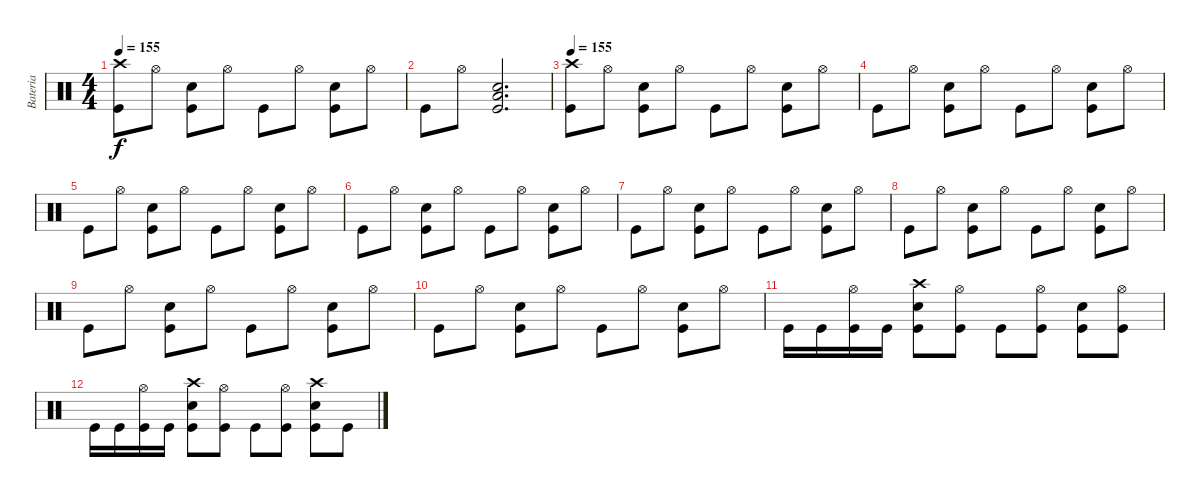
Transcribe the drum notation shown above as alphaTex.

\track ("Bateria" "Bateria") {instrument percussion}
\staff {score}
\articulation defaults
\ts (4 4)
\tempo 155
\clef neutral
\ks c
("Crash high (hit)" "Kick (hit)").8{dy f} "Hi-Hat (open)".8 ("Snare (hit) 2" "Kick (hit)").8 "Hi-Hat (open)".8 "Kick (hit)".8 "Hi-Hat (open)".8 ("Snare (hit) 2" "Kick (hit)").8 "Hi-Hat (open)".8 |
"Kick (hit)".8 "Hi-Hat (open)".8 ("Low Tom (hit)" "Snare (hit) 2" "Kick (hit)").2{d} |
\tempo 155
("Crash high (hit)" "Kick (hit)").8 "Hi-Hat (open)".8 ("Snare (hit) 2" "Kick (hit)").8 "Hi-Hat (open)".8 "Kick (hit)".8 "Hi-Hat (open)".8 ("Snare (hit) 2" "Kick (hit)").8 "Hi-Hat (open)".8 |
"Kick (hit)".8 "Hi-Hat (open)".8 ("Snare (hit) 2" "Kick (hit)").8 "Hi-Hat (open)".8 "Kick (hit)".8 "Hi-Hat (open)".8 ("Snare (hit) 2" "Kick (hit)").8 "Hi-Hat (open)".8 |
"Kick (hit)".8 "Hi-Hat (open)".8 ("Snare (hit) 2" "Kick (hit)").8 "Hi-Hat (open)".8 "Kick (hit)".8 "Hi-Hat (open)".8 ("Snare (hit) 2" "Kick (hit)").8 "Hi-Hat (open)".8 |
"Kick (hit)".8 "Hi-Hat (open)".8 ("Snare (hit) 2" "Kick (hit)").8 "Hi-Hat (open)".8 "Kick (hit)".8 "Hi-Hat (open)".8 ("Snare (hit) 2" "Kick (hit)").8 "Hi-Hat (open)".8 |
"Kick (hit)".8 "Hi-Hat (open)".8 ("Snare (hit) 2" "Kick (hit)").8 "Hi-Hat (open)".8 "Kick (hit)".8 "Hi-Hat (open)".8 ("Snare (hit) 2" "Kick (hit)").8 "Hi-Hat (open)".8 |
"Kick (hit)".8 "Hi-Hat (open)".8 ("Snare (hit) 2" "Kick (hit)").8 "Hi-Hat (open)".8 "Kick (hit)".8 "Hi-Hat (open)".8 ("Snare (hit) 2" "Kick (hit)").8 "Hi-Hat (open)".8 |
"Kick (hit)".8 "Hi-Hat (open)".8 ("Snare (hit) 2" "Kick (hit)").8 "Hi-Hat (open)".8 "Kick (hit)".8 "Hi-Hat (open)".8 ("Snare (hit) 2" "Kick (hit)").8 "Hi-Hat (open)".8 |
"Kick (hit)".8 "Hi-Hat (open)".8 ("Snare (hit) 2" "Kick (hit)").8 "Hi-Hat (open)".8 "Kick (hit)".8 "Hi-Hat (open)".8 ("Snare (hit) 2" "Kick (hit)").8 "Hi-Hat (open)".8 |
"Kick (hit)".16 "Kick (hit)".16 ("Hi-Hat (open)" "Kick (hit)").16 "Kick (hit)".16 ("Crash high (hit)" "Snare (hit) 2" "Kick (hit)").8 ("Hi-Hat (open)" "Kick (hit)").8 "Kick (hit)".8 ("Hi-Hat (open)" "Kick (hit)").8 ("Snare (hit) 2" "Kick (hit)").8 ("Hi-Hat (open)" "Kick (hit)").8 |
"Kick (hit)".16 "Kick (hit)".16 ("Hi-Hat (open)" "Kick (hit)").16 "Kick (hit)".16 ("Crash high (hit)" "Snare (hit) 2" "Kick (hit)").8 ("Hi-Hat (open)" "Kick (hit)").8 "Kick (hit)".8 ("Hi-Hat (open)" "Kick (hit)").8 ("Crash high (hit)" "Snare (hit) 2" "Kick (hit)").8 "Kick (hit)".8
